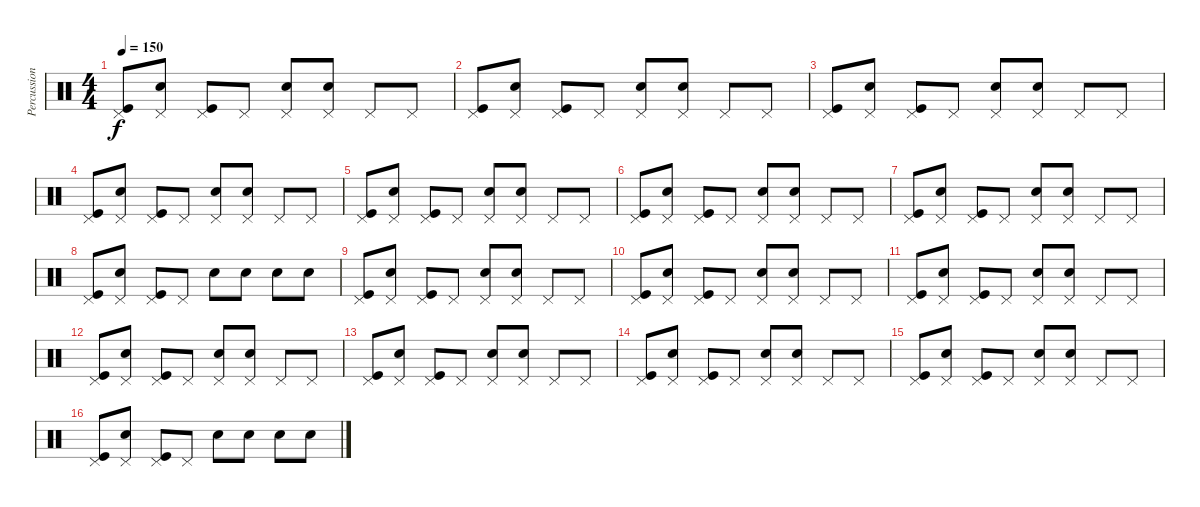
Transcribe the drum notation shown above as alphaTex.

\track ("Percussion" "Percussion") {instrument percussion}
\staff {score}
\articulation defaults
\ts (4 4)
\tempo 150
\clef neutral
\ks c
("Kick (hit)" "Pedal Hi-Hat (hit)").8{dy f} ("Electric Snare (hit)" "Pedal Hi-Hat (hit)").8 ("Kick (hit)" "Pedal Hi-Hat (hit)").8 "Pedal Hi-Hat (hit)".8 ("Electric Snare (hit)" "Pedal Hi-Hat (hit)").8 ("Electric Snare (hit)" "Pedal Hi-Hat (hit)").8 "Pedal Hi-Hat (hit)".8 "Pedal Hi-Hat (hit)".8 |
("Kick (hit)" "Pedal Hi-Hat (hit)").8 ("Electric Snare (hit)" "Pedal Hi-Hat (hit)").8 ("Kick (hit)" "Pedal Hi-Hat (hit)").8 "Pedal Hi-Hat (hit)".8 ("Electric Snare (hit)" "Pedal Hi-Hat (hit)").8 ("Electric Snare (hit)" "Pedal Hi-Hat (hit)").8 "Pedal Hi-Hat (hit)".8 "Pedal Hi-Hat (hit)".8 |
("Kick (hit)" "Pedal Hi-Hat (hit)").8 ("Electric Snare (hit)" "Pedal Hi-Hat (hit)").8 ("Kick (hit)" "Pedal Hi-Hat (hit)").8 "Pedal Hi-Hat (hit)".8 ("Electric Snare (hit)" "Pedal Hi-Hat (hit)").8 ("Electric Snare (hit)" "Pedal Hi-Hat (hit)").8 "Pedal Hi-Hat (hit)".8 "Pedal Hi-Hat (hit)".8 |
("Kick (hit)" "Pedal Hi-Hat (hit)").8 ("Electric Snare (hit)" "Pedal Hi-Hat (hit)").8 ("Kick (hit)" "Pedal Hi-Hat (hit)").8 "Pedal Hi-Hat (hit)".8 ("Electric Snare (hit)" "Pedal Hi-Hat (hit)").8 ("Electric Snare (hit)" "Pedal Hi-Hat (hit)").8 "Pedal Hi-Hat (hit)".8 "Pedal Hi-Hat (hit)".8 |
("Kick (hit)" "Pedal Hi-Hat (hit)").8 ("Electric Snare (hit)" "Pedal Hi-Hat (hit)").8 ("Kick (hit)" "Pedal Hi-Hat (hit)").8 "Pedal Hi-Hat (hit)".8 ("Electric Snare (hit)" "Pedal Hi-Hat (hit)").8 ("Electric Snare (hit)" "Pedal Hi-Hat (hit)").8 "Pedal Hi-Hat (hit)".8 "Pedal Hi-Hat (hit)".8 |
("Kick (hit)" "Pedal Hi-Hat (hit)").8 ("Electric Snare (hit)" "Pedal Hi-Hat (hit)").8 ("Kick (hit)" "Pedal Hi-Hat (hit)").8 "Pedal Hi-Hat (hit)".8 ("Electric Snare (hit)" "Pedal Hi-Hat (hit)").8 ("Electric Snare (hit)" "Pedal Hi-Hat (hit)").8 "Pedal Hi-Hat (hit)".8 "Pedal Hi-Hat (hit)".8 |
("Kick (hit)" "Pedal Hi-Hat (hit)").8 ("Electric Snare (hit)" "Pedal Hi-Hat (hit)").8 ("Kick (hit)" "Pedal Hi-Hat (hit)").8 "Pedal Hi-Hat (hit)".8 ("Electric Snare (hit)" "Pedal Hi-Hat (hit)").8 ("Electric Snare (hit)" "Pedal Hi-Hat (hit)").8 "Pedal Hi-Hat (hit)".8 "Pedal Hi-Hat (hit)".8 |
("Kick (hit)" "Pedal Hi-Hat (hit)").8 ("Electric Snare (hit)" "Pedal Hi-Hat (hit)").8 ("Kick (hit)" "Pedal Hi-Hat (hit)").8 "Pedal Hi-Hat (hit)".8 "Electric Snare (hit)".8 "Electric Snare (hit)".8 "Electric Snare (hit)".8 "Electric Snare (hit)".8 |
("Kick (hit)" "Pedal Hi-Hat (hit)").8 ("Electric Snare (hit)" "Pedal Hi-Hat (hit)").8 ("Kick (hit)" "Pedal Hi-Hat (hit)").8 "Pedal Hi-Hat (hit)".8 ("Electric Snare (hit)" "Pedal Hi-Hat (hit)").8 ("Electric Snare (hit)" "Pedal Hi-Hat (hit)").8 "Pedal Hi-Hat (hit)".8 "Pedal Hi-Hat (hit)".8 |
("Kick (hit)" "Pedal Hi-Hat (hit)").8 ("Electric Snare (hit)" "Pedal Hi-Hat (hit)").8 ("Kick (hit)" "Pedal Hi-Hat (hit)").8 "Pedal Hi-Hat (hit)".8 ("Electric Snare (hit)" "Pedal Hi-Hat (hit)").8 ("Electric Snare (hit)" "Pedal Hi-Hat (hit)").8 "Pedal Hi-Hat (hit)".8 "Pedal Hi-Hat (hit)".8 |
("Kick (hit)" "Pedal Hi-Hat (hit)").8 ("Electric Snare (hit)" "Pedal Hi-Hat (hit)").8 ("Kick (hit)" "Pedal Hi-Hat (hit)").8 "Pedal Hi-Hat (hit)".8 ("Electric Snare (hit)" "Pedal Hi-Hat (hit)").8 ("Electric Snare (hit)" "Pedal Hi-Hat (hit)").8 "Pedal Hi-Hat (hit)".8 "Pedal Hi-Hat (hit)".8 |
("Kick (hit)" "Pedal Hi-Hat (hit)").8 ("Electric Snare (hit)" "Pedal Hi-Hat (hit)").8 ("Kick (hit)" "Pedal Hi-Hat (hit)").8 "Pedal Hi-Hat (hit)".8 ("Electric Snare (hit)" "Pedal Hi-Hat (hit)").8 ("Electric Snare (hit)" "Pedal Hi-Hat (hit)").8 "Pedal Hi-Hat (hit)".8 "Pedal Hi-Hat (hit)".8 |
("Kick (hit)" "Pedal Hi-Hat (hit)").8 ("Electric Snare (hit)" "Pedal Hi-Hat (hit)").8 ("Kick (hit)" "Pedal Hi-Hat (hit)").8 "Pedal Hi-Hat (hit)".8 ("Electric Snare (hit)" "Pedal Hi-Hat (hit)").8 ("Electric Snare (hit)" "Pedal Hi-Hat (hit)").8 "Pedal Hi-Hat (hit)".8 "Pedal Hi-Hat (hit)".8 |
("Kick (hit)" "Pedal Hi-Hat (hit)").8 ("Electric Snare (hit)" "Pedal Hi-Hat (hit)").8 ("Kick (hit)" "Pedal Hi-Hat (hit)").8 "Pedal Hi-Hat (hit)".8 ("Electric Snare (hit)" "Pedal Hi-Hat (hit)").8 ("Electric Snare (hit)" "Pedal Hi-Hat (hit)").8 "Pedal Hi-Hat (hit)".8 "Pedal Hi-Hat (hit)".8 |
("Kick (hit)" "Pedal Hi-Hat (hit)").8 ("Electric Snare (hit)" "Pedal Hi-Hat (hit)").8 ("Kick (hit)" "Pedal Hi-Hat (hit)").8 "Pedal Hi-Hat (hit)".8 ("Electric Snare (hit)" "Pedal Hi-Hat (hit)").8 ("Electric Snare (hit)" "Pedal Hi-Hat (hit)").8 "Pedal Hi-Hat (hit)".8 "Pedal Hi-Hat (hit)".8 |
("Kick (hit)" "Pedal Hi-Hat (hit)").8 ("Electric Snare (hit)" "Pedal Hi-Hat (hit)").8 ("Kick (hit)" "Pedal Hi-Hat (hit)").8 "Pedal Hi-Hat (hit)".8 "Electric Snare (hit)".8 "Electric Snare (hit)".8 "Electric Snare (hit)".8 "Electric Snare (hit)".8
